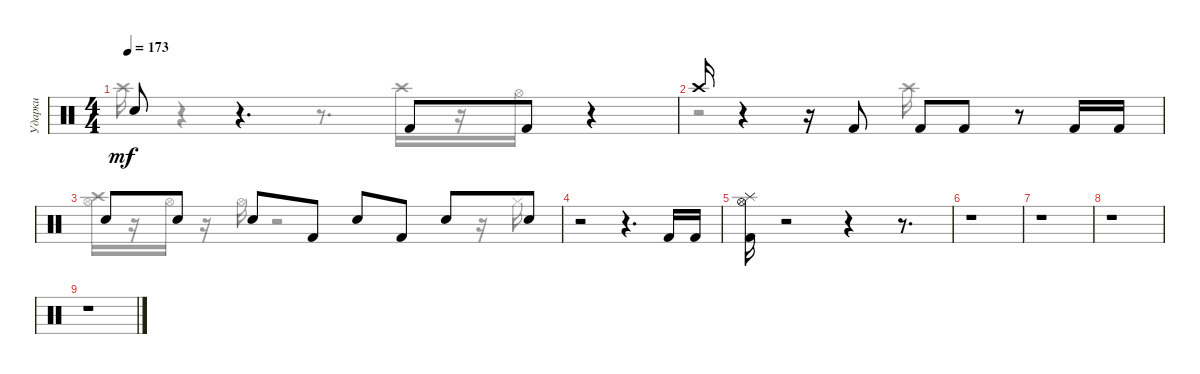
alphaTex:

\track ("Ударки" "Ударки") {instrument percussion}
\staff {score}
\articulation defaults
\voice
\ts (4 4)
\tempo 173
\clef neutral
\ks aminor "Snare (hit) 2".8{dy mf}
r.4{d} "Kick (hit) 2".8 "Kick (hit) 2".8 r.4 |
"Crash high (hit)".16 r.4 r.16 "Kick (hit) 2".8 "Kick (hit) 2".8 "Kick (hit) 2".8 r.8 "Kick (hit) 2".16 "Kick (hit) 2".16 |
"Snare (hit) 2".8 "Snare (hit) 2".8 "Snare (hit) 2".8 "Kick (hit) 2".8 "Snare (hit) 2".8 "Kick (hit) 2".8 "Snare (hit) 2".8 "Snare (hit) 2".8 |
r.2 r.4{d} "Kick (hit) 2".16 "Kick (hit) 2".16 |
("Splash (hit)" "Kick (hit) 2" "Hi-Hat (open)").16 r.2 r.4 r.8{d} |
r.1 |
r.1 |
r.1 |
r.1
\voice
\clef neutral
\ottava regular
\simile none
\ks aminor "Crash high (hit)".16{dy mf}
r.4 r.8{d} "Crash high (hit)".16 r.16 "Hi-Hat (open)".16 |
r.2 "Crash high (hit)".16 |
("Hi-Hat (open)" "Crash high (hit)").16 r.16 "Hi-Hat (open)".16 r.16 "Hi-Hat (open)".16 r.2 r.16 "Hi-Hat (closed)".16 |
|
|
|
|
|
